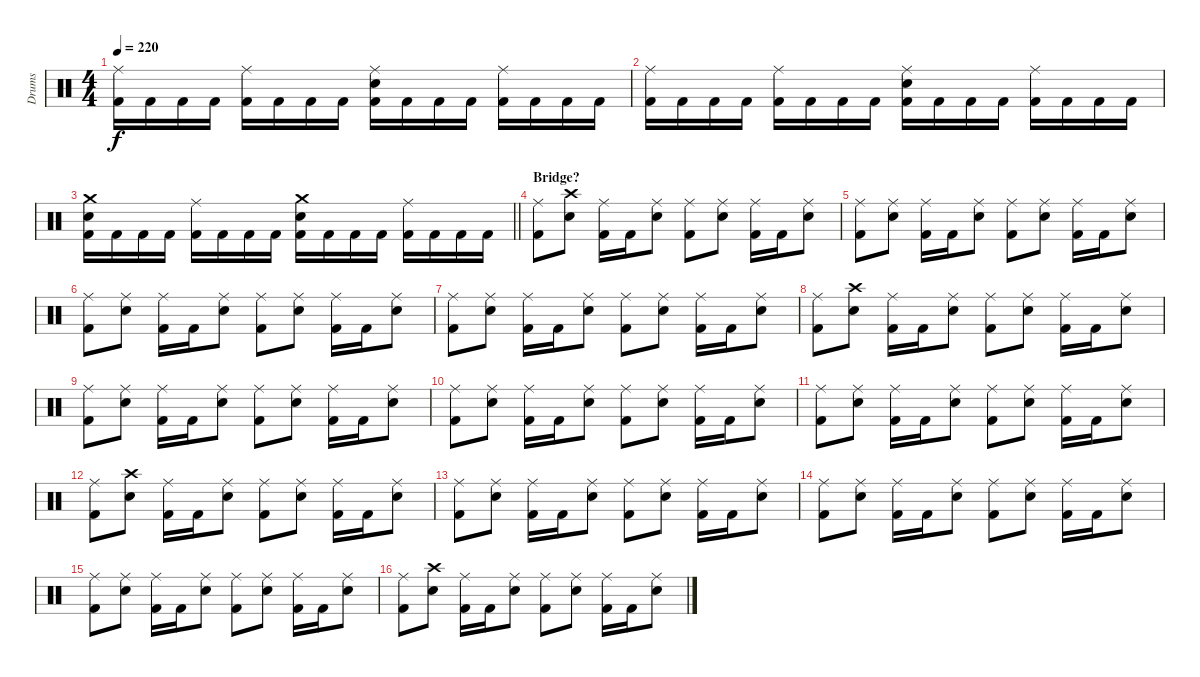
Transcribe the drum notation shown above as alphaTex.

\track ("Drums" "Drums") {instrument percussion}
\staff {score}
\articulation defaults
\ts (4 4)
\tempo 220
\clef neutral
\ks c
("Ride (middle)" "Kick (hit) 2").16{dy f} "Kick (hit) 2".16 "Kick (hit) 2".16 "Kick (hit) 2".16 ("Ride (middle)" "Kick (hit) 2").16 "Kick (hit) 2".16 "Kick (hit) 2".16 "Kick (hit) 2".16 ("Ride (middle)" "Snare (hit) 2" "Kick (hit) 2").16 "Kick (hit) 2".16 "Kick (hit) 2".16 "Kick (hit) 2".16 ("Ride (middle)" "Kick (hit) 2").16 "Kick (hit) 2".16 "Kick (hit) 2".16 "Kick (hit) 2".16 |
("Ride (middle)" "Kick (hit) 2").16 "Kick (hit) 2".16 "Kick (hit) 2".16 "Kick (hit) 2".16 ("Ride (middle)" "Kick (hit) 2").16 "Kick (hit) 2".16 "Kick (hit) 2".16 "Kick (hit) 2".16 ("Ride (middle)" "Snare (hit) 2" "Kick (hit) 2").16 "Kick (hit) 2".16 "Kick (hit) 2".16 "Kick (hit) 2".16 ("Ride (middle)" "Kick (hit) 2").16 "Kick (hit) 2".16 "Kick (hit) 2".16 "Kick (hit) 2".16 |
\barLineRight lightlight
("Crash medium (hit)" "Snare (hit) 2" "Kick (hit) 2").16 "Kick (hit) 2".16 "Kick (hit) 2".16 "Kick (hit) 2".16 ("Ride (middle)" "Kick (hit) 2").16 "Kick (hit) 2".16 "Kick (hit) 2".16 "Kick (hit) 2".16 ("Crash medium (hit)" "Snare (hit) 2" "Kick (hit) 2").16 "Kick (hit) 2".16 "Kick (hit) 2".16 "Kick (hit) 2".16 ("Ride (middle)" "Kick (hit) 2").16 "Kick (hit) 2".16 "Kick (hit) 2".16 "Kick (hit) 2".16 |
\section ("" "Bridge?")
("Ride (middle)" "Kick (hit) 2").8 ("Crash high (hit)" "Snare (hit) 2").8 ("Ride (middle)" "Kick (hit) 2").16 "Kick (hit) 2".16 ("Ride (middle)" "Snare (hit) 2").8 ("Ride (middle)" "Kick (hit) 2").8 ("Ride (middle)" "Snare (hit) 2").8 ("Ride (middle)" "Kick (hit) 2").16 "Kick (hit) 2".16 ("Ride (middle)" "Snare (hit) 2").8 |
("Ride (middle)" "Kick (hit) 2").8 ("Ride (middle)" "Snare (hit) 2").8 ("Ride (middle)" "Kick (hit) 2").16 "Kick (hit) 2".16 ("Ride (middle)" "Snare (hit) 2").8 ("Ride (middle)" "Kick (hit) 2").8 ("Ride (middle)" "Snare (hit) 2").8 ("Ride (middle)" "Kick (hit) 2").16 "Kick (hit) 2".16 ("Ride (middle)" "Snare (hit) 2").8 |
("Ride (middle)" "Kick (hit) 2").8 ("Ride (middle)" "Snare (hit) 2").8 ("Ride (middle)" "Kick (hit) 2").16 "Kick (hit) 2".16 ("Ride (middle)" "Snare (hit) 2").8 ("Ride (middle)" "Kick (hit) 2").8 ("Ride (middle)" "Snare (hit) 2").8 ("Ride (middle)" "Kick (hit) 2").16 "Kick (hit) 2".16 ("Ride (middle)" "Snare (hit) 2").8 |
("Ride (middle)" "Kick (hit) 2").8 ("Ride (middle)" "Snare (hit) 2").8 ("Ride (middle)" "Kick (hit) 2").16 "Kick (hit) 2".16 ("Ride (middle)" "Snare (hit) 2").8 ("Ride (middle)" "Kick (hit) 2").8 ("Ride (middle)" "Snare (hit) 2").8 ("Ride (middle)" "Kick (hit) 2").16 "Kick (hit) 2".16 ("Ride (middle)" "Snare (hit) 2").8 |
("Ride (middle)" "Kick (hit) 2").8 ("Crash high (hit)" "Snare (hit) 2").8 ("Ride (middle)" "Kick (hit) 2").16 "Kick (hit) 2".16 ("Ride (middle)" "Snare (hit) 2").8 ("Ride (middle)" "Kick (hit) 2").8 ("Ride (middle)" "Snare (hit) 2").8 ("Ride (middle)" "Kick (hit) 2").16 "Kick (hit) 2".16 ("Ride (middle)" "Snare (hit) 2").8 |
("Ride (middle)" "Kick (hit) 2").8 ("Ride (middle)" "Snare (hit) 2").8 ("Ride (middle)" "Kick (hit) 2").16 "Kick (hit) 2".16 ("Ride (middle)" "Snare (hit) 2").8 ("Ride (middle)" "Kick (hit) 2").8 ("Ride (middle)" "Snare (hit) 2").8 ("Ride (middle)" "Kick (hit) 2").16 "Kick (hit) 2".16 ("Ride (middle)" "Snare (hit) 2").8 |
("Ride (middle)" "Kick (hit) 2").8 ("Ride (middle)" "Snare (hit) 2").8 ("Ride (middle)" "Kick (hit) 2").16 "Kick (hit) 2".16 ("Ride (middle)" "Snare (hit) 2").8 ("Ride (middle)" "Kick (hit) 2").8 ("Ride (middle)" "Snare (hit) 2").8 ("Ride (middle)" "Kick (hit) 2").16 "Kick (hit) 2".16 ("Ride (middle)" "Snare (hit) 2").8 |
("Ride (middle)" "Kick (hit) 2").8 ("Ride (middle)" "Snare (hit) 2").8 ("Ride (middle)" "Kick (hit) 2").16 "Kick (hit) 2".16 ("Ride (middle)" "Snare (hit) 2").8 ("Ride (middle)" "Kick (hit) 2").8 ("Ride (middle)" "Snare (hit) 2").8 ("Ride (middle)" "Kick (hit) 2").16 "Kick (hit) 2".16 ("Ride (middle)" "Snare (hit) 2").8 |
("Ride (middle)" "Kick (hit) 2").8 ("Crash high (hit)" "Snare (hit) 2").8 ("Ride (middle)" "Kick (hit) 2").16 "Kick (hit) 2".16 ("Ride (middle)" "Snare (hit) 2").8 ("Ride (middle)" "Kick (hit) 2").8 ("Ride (middle)" "Snare (hit) 2").8 ("Ride (middle)" "Kick (hit) 2").16 "Kick (hit) 2".16 ("Ride (middle)" "Snare (hit) 2").8 |
("Ride (middle)" "Kick (hit) 2").8 ("Ride (middle)" "Snare (hit) 2").8 ("Ride (middle)" "Kick (hit) 2").16 "Kick (hit) 2".16 ("Ride (middle)" "Snare (hit) 2").8 ("Ride (middle)" "Kick (hit) 2").8 ("Ride (middle)" "Snare (hit) 2").8 ("Ride (middle)" "Kick (hit) 2").16 "Kick (hit) 2".16 ("Ride (middle)" "Snare (hit) 2").8 |
("Ride (middle)" "Kick (hit) 2").8 ("Ride (middle)" "Snare (hit) 2").8 ("Ride (middle)" "Kick (hit) 2").16 "Kick (hit) 2".16 ("Ride (middle)" "Snare (hit) 2").8 ("Ride (middle)" "Kick (hit) 2").8 ("Ride (middle)" "Snare (hit) 2").8 ("Ride (middle)" "Kick (hit) 2").16 "Kick (hit) 2".16 ("Ride (middle)" "Snare (hit) 2").8 |
("Ride (middle)" "Kick (hit) 2").8 ("Ride (middle)" "Snare (hit) 2").8 ("Ride (middle)" "Kick (hit) 2").16 "Kick (hit) 2".16 ("Ride (middle)" "Snare (hit) 2").8 ("Ride (middle)" "Kick (hit) 2").8 ("Ride (middle)" "Snare (hit) 2").8 ("Ride (middle)" "Kick (hit) 2").16 "Kick (hit) 2".16 ("Ride (middle)" "Snare (hit) 2").8 |
("Ride (middle)" "Kick (hit) 2").8 ("Crash high (hit)" "Snare (hit) 2").8 ("Ride (middle)" "Kick (hit) 2").16 "Kick (hit) 2".16 ("Ride (middle)" "Snare (hit) 2").8 ("Ride (middle)" "Kick (hit) 2").8 ("Ride (middle)" "Snare (hit) 2").8 ("Ride (middle)" "Kick (hit) 2").16 "Kick (hit) 2".16 ("Ride (middle)" "Snare (hit) 2").8
